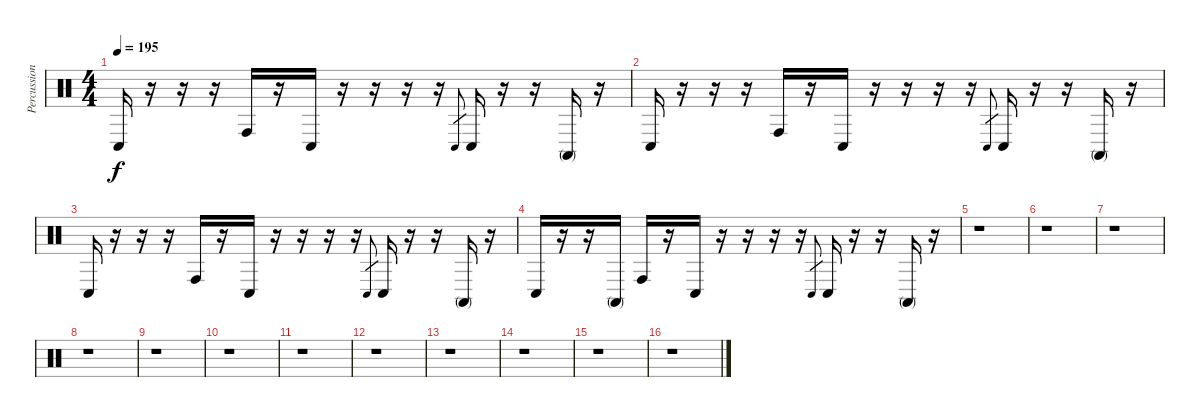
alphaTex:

\track ("Percussion" "Percussion") {instrument percussion}
\staff {score}
\articulation defaults
\ts (4 4)
\tempo 195
\clef neutral
\ks c "Conga low (hit)".16{dy f}
r.16 r.16 r.16 "Conga high (hit)".16 r.16 "Conga low (hit)".16 r.16 r.16 r.16 r.16 "Conga low (hit)".8{gr} "Conga low (hit)".16 r.16 r.16 "Conga high (mute)".16 r.16 |
"Conga low (hit)".16 r.16 r.16 r.16 "Conga high (hit)".16 r.16 "Conga low (hit)".16 r.16 r.16 r.16 r.16 "Conga low (hit)".8{gr} "Conga low (hit)".16 r.16 r.16 "Conga high (mute)".16 r.16 |
"Conga low (hit)".16 r.16 r.16 r.16 "Conga high (hit)".16 r.16 "Conga low (hit)".16 r.16 r.16 r.16 r.16 "Conga low (hit)".8{gr} "Conga low (hit)".16 r.16 r.16 "Conga high (mute)".16 r.16 |
"Conga low (hit)".16 r.16 r.16 "Conga high (mute)".16 "Conga high (hit)".16 r.16 "Conga low (hit)".16 r.16 r.16 r.16 r.16 "Conga low (hit)".8{gr} "Conga low (hit)".16 r.16 r.16 "Conga high (mute)".16 r.16 |
r.1 |
r.1 |
r.1 |
r.1 |
r.1 |
r.1 |
r.1 |
r.1 |
r.1 |
r.1 |
r.1 |
r.1
